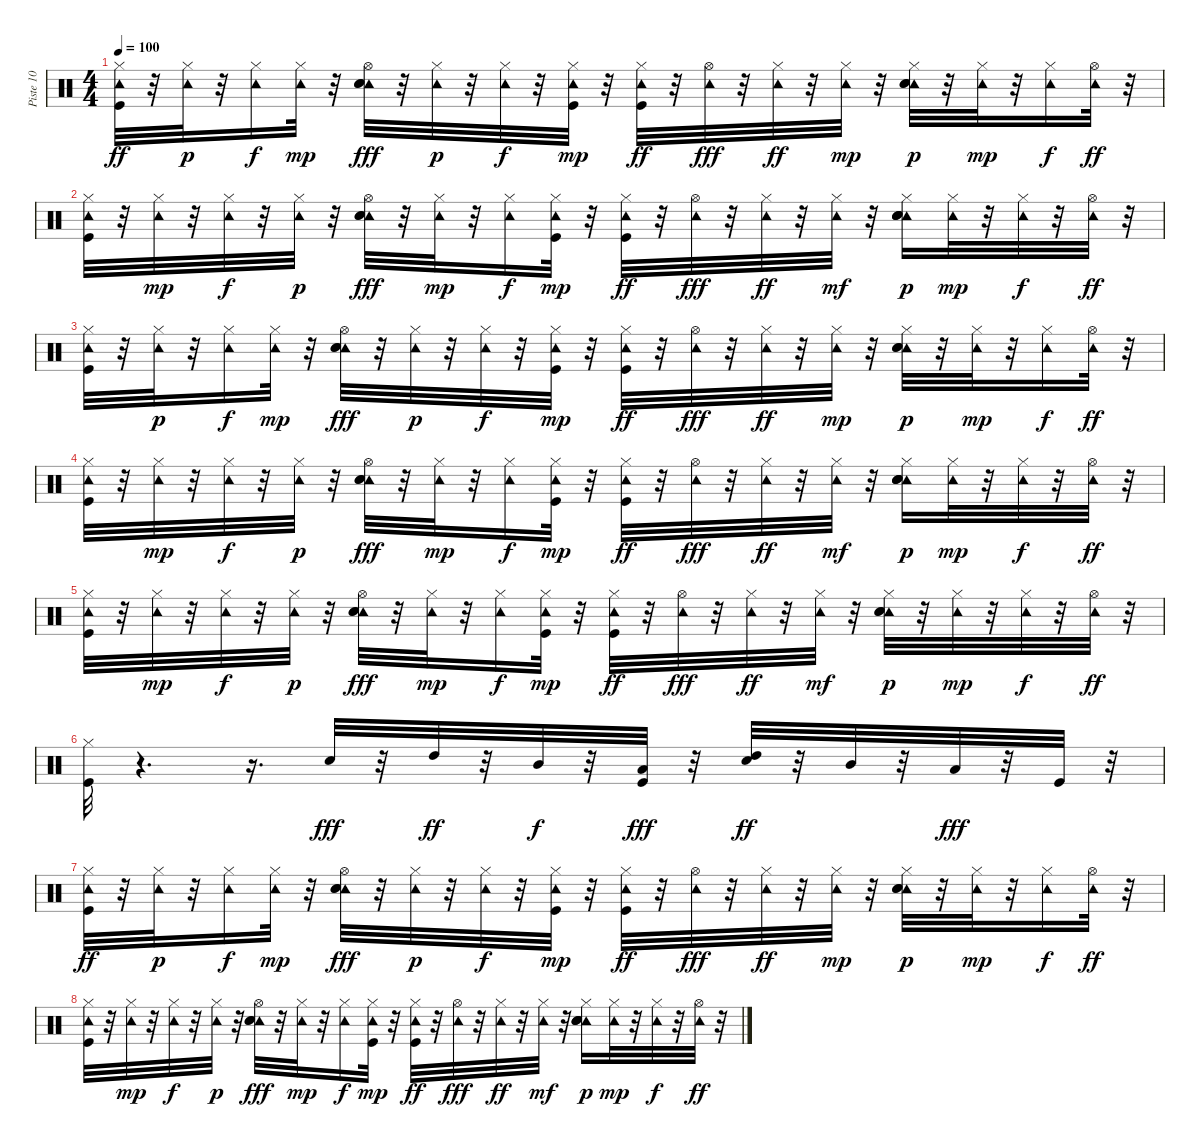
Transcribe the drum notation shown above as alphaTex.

\track ("Piste 10" "Piste 10") {instrument percussion}
\staff {score}
\articulation defaults
\ts (4 4)
\tempo 100
\clef neutral
\ks c
("Tambourine (hit)" "Kick (hit)" "Hi-Hat (closed)").32{dy ff} r.32 ("Tambourine (hit)" "Hi-Hat (closed)").32{dy p} r.32 ("Tambourine (hit)" "Hi-Hat (closed)").16{dy f} ("Tambourine (hit)" "Hi-Hat (closed)").32{dy mp} r.32 ("Tambourine (hit)" "Hi-Hat (open)" "Electric Snare (hit)" "Hand Clap (hit)").32{dy fff} r.32 ("Tambourine (hit)" "Hi-Hat (closed)").32{dy p} r.32 ("Tambourine (hit)" "Hi-Hat (closed)").32{dy f} r.32 ("Tambourine (hit)" "Hi-Hat (closed)" "Kick (hit)").32{dy mp} r.32 ("Tambourine (hit)" "Hi-Hat (closed)" "Kick (hit)").32{dy ff} r.32 ("Tambourine (hit)" "Hi-Hat (open)").32{dy fff} r.32 ("Tambourine (hit)" "Hi-Hat (closed)").32{dy ff} r.32 ("Tambourine (hit)" "Hi-Hat (closed)").32{dy mp} r.32 ("Tambourine (hit)" "Hi-Hat (closed)" "Electric Snare (hit)" "Hand Clap (hit)").32{dy p} r.32 ("Tambourine (hit)" "Hi-Hat (closed)").32{dy mp} r.32 ("Tambourine (hit)" "Hi-Hat (closed)").16{dy f} ("Tambourine (hit)" "Hi-Hat (open)").32{dy ff} r.32 |
("Tambourine (hit)" "Kick (hit)" "Hi-Hat (closed)").32 r.32 ("Tambourine (hit)" "Hi-Hat (closed)").32{dy mp} r.32 ("Tambourine (hit)" "Hi-Hat (closed)").32{dy f} r.32 ("Tambourine (hit)" "Hi-Hat (closed)").32{dy p} r.32 ("Tambourine (hit)" "Hi-Hat (open)" "Electric Snare (hit)" "Hand Clap (hit)").32{dy fff} r.32 ("Tambourine (hit)" "Hi-Hat (closed)").32{dy mp} r.32 ("Tambourine (hit)" "Hi-Hat (closed)").16{dy f} ("Tambourine (hit)" "Hi-Hat (closed)" "Kick (hit)").32{dy mp} r.32 ("Tambourine (hit)" "Kick (hit)" "Hi-Hat (closed)").32{dy ff} r.32 ("Tambourine (hit)" "Hi-Hat (open)").32{dy fff} r.32 ("Tambourine (hit)" "Hi-Hat (closed)").32{dy ff} r.32 ("Tambourine (hit)" "Hi-Hat (closed)").32{dy mf} r.32 ("Tambourine (hit)" "Hi-Hat (closed)" "Electric Snare (hit)" "Hand Clap (hit)" "Hand Clap (hit)").16{dy p} ("Tambourine (hit)" "Hi-Hat (closed)").32{dy mp} r.32 ("Tambourine (hit)" "Hi-Hat (closed)").32{dy f} r.32 ("Tambourine (hit)" "Hi-Hat (open)").32{dy ff} r.32 |
("Tambourine (hit)" "Kick (hit)" "Hi-Hat (closed)").32 r.32 ("Tambourine (hit)" "Hi-Hat (closed)").32{dy p} r.32 ("Tambourine (hit)" "Hi-Hat (closed)").16{dy f} ("Tambourine (hit)" "Hi-Hat (closed)").32{dy mp} r.32 ("Tambourine (hit)" "Hi-Hat (open)" "Electric Snare (hit)" "Hand Clap (hit)").32{dy fff} r.32 ("Tambourine (hit)" "Hi-Hat (closed)").32{dy p} r.32 ("Tambourine (hit)" "Hi-Hat (closed)").32{dy f} r.32 ("Tambourine (hit)" "Hi-Hat (closed)" "Kick (hit)").32{dy mp} r.32 ("Tambourine (hit)" "Hi-Hat (closed)" "Kick (hit)").32{dy ff} r.32 ("Tambourine (hit)" "Hi-Hat (open)").32{dy fff} r.32 ("Tambourine (hit)" "Hi-Hat (closed)").32{dy ff} r.32 ("Tambourine (hit)" "Hi-Hat (closed)").32{dy mp} r.32 ("Tambourine (hit)" "Hi-Hat (closed)" "Electric Snare (hit)" "Hand Clap (hit)").32{dy p} r.32 ("Tambourine (hit)" "Hi-Hat (closed)").32{dy mp} r.32 ("Tambourine (hit)" "Hi-Hat (closed)").16{dy f} ("Tambourine (hit)" "Hi-Hat (open)").32{dy ff} r.32 |
("Tambourine (hit)" "Kick (hit)" "Hi-Hat (closed)").32 r.32 ("Tambourine (hit)" "Hi-Hat (closed)").32{dy mp} r.32 ("Tambourine (hit)" "Hi-Hat (closed)").32{dy f} r.32 ("Tambourine (hit)" "Hi-Hat (closed)").32{dy p} r.32 ("Tambourine (hit)" "Hi-Hat (open)" "Electric Snare (hit)" "Hand Clap (hit)").32{dy fff} r.32 ("Tambourine (hit)" "Hi-Hat (closed)").32{dy mp} r.32 ("Tambourine (hit)" "Hi-Hat (closed)").16{dy f} ("Tambourine (hit)" "Hi-Hat (closed)" "Kick (hit)").32{dy mp} r.32 ("Tambourine (hit)" "Kick (hit)" "Hi-Hat (closed)").32{dy ff} r.32 ("Tambourine (hit)" "Hi-Hat (open)").32{dy fff} r.32 ("Tambourine (hit)" "Hi-Hat (closed)").32{dy ff} r.32 ("Tambourine (hit)" "Hi-Hat (closed)").32{dy mf} r.32 ("Tambourine (hit)" "Hi-Hat (closed)" "Electric Snare (hit)" "Hand Clap (hit)" "Hand Clap (hit)").16{dy p} ("Tambourine (hit)" "Hi-Hat (closed)").32{dy mp} r.32 ("Tambourine (hit)" "Hi-Hat (closed)").32{dy f} r.32 ("Tambourine (hit)" "Hi-Hat (open)").32{dy ff} r.32 |
("Tambourine (hit)" "Kick (hit)" "Hi-Hat (closed)").32 r.32 ("Tambourine (hit)" "Hi-Hat (closed)").32{dy mp} r.32 ("Tambourine (hit)" "Hi-Hat (closed)").32{dy f} r.32 ("Tambourine (hit)" "Hi-Hat (closed)").32{dy p} r.32 ("Tambourine (hit)" "Hi-Hat (open)" "Electric Snare (hit)" "Hand Clap (hit)").32{dy fff} r.32 ("Tambourine (hit)" "Hi-Hat (closed)").32{dy mp} r.32 ("Tambourine (hit)" "Hi-Hat (closed)").16{dy f} ("Tambourine (hit)" "Hi-Hat (closed)" "Kick (hit)").32{dy mp} r.32 ("Tambourine (hit)" "Hi-Hat (closed)" "Kick (hit)").32{dy ff} r.32 ("Tambourine (hit)" "Hi-Hat (open)").32{dy fff} r.32 ("Tambourine (hit)" "Hi-Hat (closed)").32{dy ff} r.32 ("Tambourine (hit)" "Hi-Hat (closed)").32{dy mf} r.32 ("Tambourine (hit)" "Hi-Hat (closed)" "Electric Snare (hit)" "Hand Clap (hit)").32{dy p} r.32 ("Tambourine (hit)" "Hi-Hat (closed)").32{dy mp} r.32 ("Tambourine (hit)" "Hi-Hat (closed)").32{dy f} r.32 ("Tambourine (hit)" "Hi-Hat (open)").32{dy ff} r.32 |
("Kick (hit)" "Hi-Hat (closed)").32 r.4{d} r.16{d} "Electric Snare (hit)".32{dy fff} r.32 "High Tom (hit)".32{dy ff} r.32 "Mid Tom (hit)".32{dy f} r.32 ("Low Tom (hit)" "Kick (hit)").32{dy fff} r.32 ("High Tom (hit)" "Electric Snare (hit)").32{dy ff} r.32 "Mid Tom (hit)".32 r.32 "Low Tom (hit)".32{dy fff} r.32 "Kick (hit)".32 r.32 |
("Tambourine (hit)" "Kick (hit)" "Hi-Hat (closed)").32{dy ff} r.32 ("Tambourine (hit)" "Hi-Hat (closed)").32{dy p} r.32 ("Tambourine (hit)" "Hi-Hat (closed)").16{dy f} ("Tambourine (hit)" "Hi-Hat (closed)").32{dy mp} r.32 ("Tambourine (hit)" "Hi-Hat (open)" "Electric Snare (hit)" "Hand Clap (hit)").32{dy fff} r.32 ("Tambourine (hit)" "Hi-Hat (closed)").32{dy p} r.32 ("Tambourine (hit)" "Hi-Hat (closed)").32{dy f} r.32 ("Tambourine (hit)" "Hi-Hat (closed)" "Kick (hit)").32{dy mp} r.32 ("Tambourine (hit)" "Hi-Hat (closed)" "Kick (hit)").32{dy ff} r.32 ("Tambourine (hit)" "Hi-Hat (open)").32{dy fff} r.32 ("Tambourine (hit)" "Hi-Hat (closed)").32{dy ff} r.32 ("Tambourine (hit)" "Hi-Hat (closed)").32{dy mp} r.32 ("Tambourine (hit)" "Hi-Hat (closed)" "Electric Snare (hit)" "Hand Clap (hit)").32{dy p} r.32 ("Tambourine (hit)" "Hi-Hat (closed)").32{dy mp} r.32 ("Tambourine (hit)" "Hi-Hat (closed)").16{dy f} ("Tambourine (hit)" "Hi-Hat (open)").32{dy ff} r.32 |
("Tambourine (hit)" "Kick (hit)" "Hi-Hat (closed)").32 r.32 ("Tambourine (hit)" "Hi-Hat (closed)").32{dy mp} r.32 ("Tambourine (hit)" "Hi-Hat (closed)").32{dy f} r.32 ("Tambourine (hit)" "Hi-Hat (closed)").32{dy p} r.32 ("Tambourine (hit)" "Hi-Hat (open)" "Electric Snare (hit)" "Hand Clap (hit)").32{dy fff} r.32 ("Tambourine (hit)" "Hi-Hat (closed)").32{dy mp} r.32 ("Tambourine (hit)" "Hi-Hat (closed)").16{dy f} ("Tambourine (hit)" "Hi-Hat (closed)" "Kick (hit)").32{dy mp} r.32 ("Tambourine (hit)" "Kick (hit)" "Hi-Hat (closed)").32{dy ff} r.32 ("Tambourine (hit)" "Hi-Hat (open)").32{dy fff} r.32 ("Tambourine (hit)" "Hi-Hat (closed)").32{dy ff} r.32 ("Tambourine (hit)" "Hi-Hat (closed)").32{dy mf} r.32 ("Tambourine (hit)" "Hi-Hat (closed)" "Electric Snare (hit)" "Hand Clap (hit)" "Hand Clap (hit)").16{dy p} ("Tambourine (hit)" "Hi-Hat (closed)").32{dy mp} r.32 ("Tambourine (hit)" "Hi-Hat (closed)").32{dy f} r.32 ("Tambourine (hit)" "Hi-Hat (open)").32{dy ff} r.32
